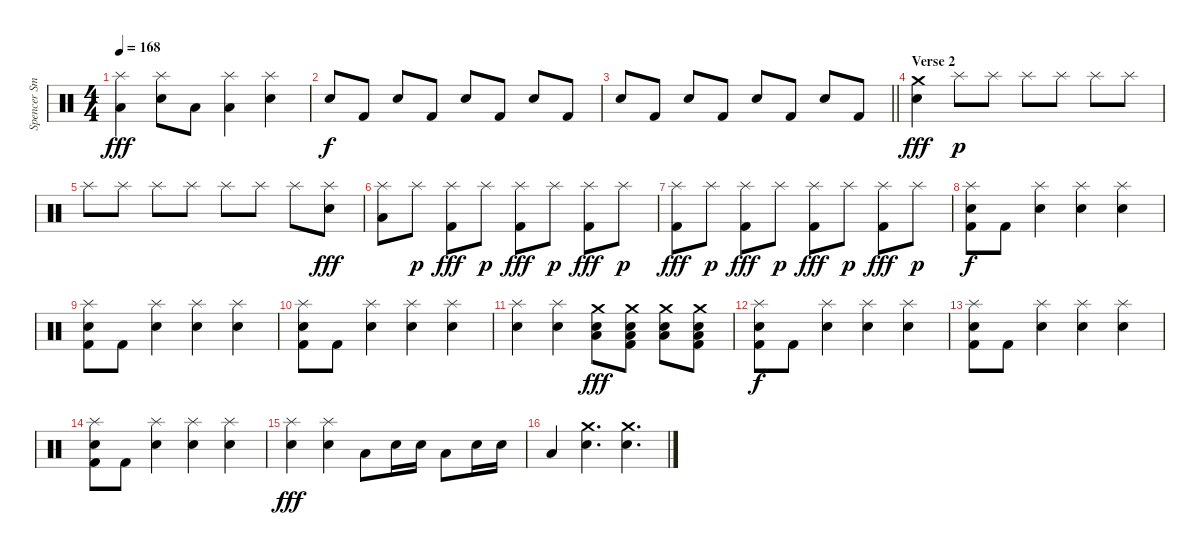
\track ("Spencer Smith" "Spencer Sm") {instrument percussion}
\staff {score}
\articulation defaults
\ts (4 4)
\tempo 168
\clef neutral
\ks c
("Splash (hit)" "Low Floor Tom (hit)").4{dy fff} ("Splash (hit)" "Electric Snare (hit)").8 "Low Floor Tom (hit)".8 ("Splash (hit)" "Low Floor Tom (hit)").4 ("Splash (hit)" "Electric Snare (hit)").4 |
"Snare (hit) 2".8{dy f} "Kick (hit) 2".8 "Snare (hit) 2".8 "Kick (hit) 2".8 "Snare (hit) 2".8 "Kick (hit) 2".8 "Snare (hit) 2".8 "Kick (hit) 2".8 |
\barLineRight lightlight "Snare (hit) 2".8 "Kick (hit) 2".8 "Snare (hit) 2".8 "Kick (hit) 2".8 "Snare (hit) 2".8 "Kick (hit) 2".8 "Snare (hit) 2".8 "Kick (hit) 2".8
|
\section ("" "Verse 2")
("Crash medium (hit)" "Electric Snare (hit)").4{dy fff} "Splash (hit)".8{dy p} "Splash (hit)".8 "Splash (hit)".8 "Splash (hit)".8 "Splash (hit)".8 "Splash (hit)".8 |
"Splash (hit)".8 "Splash (hit)".8 "Splash (hit)".8 "Splash (hit)".8 "Splash (hit)".8 "Splash (hit)".8 "Splash (hit)".8 ("Splash (hit)" "Electric Snare (hit)").8{dy fff} |
("Splash (hit)" "Low Floor Tom (hit)").8 "Splash (hit)".8{dy p} ("Splash (hit)" "Kick (hit) 2").8{dy fff} "Splash (hit)".8{dy p} ("Splash (hit)" "Kick (hit) 2").8{dy fff} "Splash (hit)".8{dy p} ("Splash (hit)" "Kick (hit) 2").8{dy fff} "Splash (hit)".8{dy p} |
("Splash (hit)" "Kick (hit) 2").8{dy fff} "Splash (hit)".8{dy p} ("Splash (hit)" "Kick (hit) 2").8{dy fff} "Splash (hit)".8{dy p} ("Splash (hit)" "Kick (hit) 2").8{dy fff} "Splash (hit)".8{dy p} ("Splash (hit)" "Kick (hit) 2").8{dy fff} "Splash (hit)".8{dy p} |
("Splash (hit)" "Electric Snare (hit)" "Kick (hit) 2").8{dy f} "Kick (hit) 2".8 ("Splash (hit)" "Electric Snare (hit)").4 ("Splash (hit)" "Electric Snare (hit)").4 ("Splash (hit)" "Electric Snare (hit)").4 |
("Splash (hit)" "Electric Snare (hit)" "Kick (hit) 2").8 "Kick (hit) 2".8 ("Splash (hit)" "Electric Snare (hit)").4 ("Splash (hit)" "Electric Snare (hit)").4 ("Splash (hit)" "Electric Snare (hit)").4 |
("Splash (hit)" "Electric Snare (hit)" "Kick (hit) 2").8 "Kick (hit) 2".8 ("Splash (hit)" "Electric Snare (hit)").4 ("Splash (hit)" "Electric Snare (hit)").4 ("Splash (hit)" "Electric Snare (hit)").4 |
("Splash (hit)" "Electric Snare (hit)").4 ("Splash (hit)" "Electric Snare (hit)").4 ("Crash medium (hit)" "Low Floor Tom (hit)" "Electric Snare (hit)").8{dy fff} ("Crash medium (hit)" "Low Floor Tom (hit)" "Snare (hit) 2" "Kick (hit) 2").8 ("Crash medium (hit)" "Low Floor Tom (hit)" "Electric Snare (hit)").8 ("Crash medium (hit)" "Low Floor Tom (hit)" "Snare (hit) 2" "Kick (hit) 2").8 |
("Splash (hit)" "Electric Snare (hit)" "Kick (hit) 2").8{dy f} "Kick (hit) 2".8 ("Splash (hit)" "Electric Snare (hit)").4 ("Splash (hit)" "Electric Snare (hit)").4 ("Splash (hit)" "Electric Snare (hit)").4 |
("Splash (hit)" "Electric Snare (hit)" "Kick (hit) 2").8 "Kick (hit) 2".8 ("Splash (hit)" "Electric Snare (hit)").4 ("Splash (hit)" "Electric Snare (hit)").4 ("Splash (hit)" "Electric Snare (hit)").4 |
("Splash (hit)" "Electric Snare (hit)" "Kick (hit) 2").8 "Kick (hit) 2".8 ("Splash (hit)" "Electric Snare (hit)").4 ("Splash (hit)" "Electric Snare (hit)").4 ("Splash (hit)" "Electric Snare (hit)").4 |
("Splash (hit)" "Electric Snare (hit)").4{dy fff} ("Splash (hit)" "Electric Snare (hit)").4 "Low Floor Tom (hit)".8 "Electric Snare (hit)".16 "Electric Snare (hit)".16 "Low Floor Tom (hit)".8 "Electric Snare (hit)".16 "Electric Snare (hit)".16 |
"Low Floor Tom (hit)".4 ("Crash medium (hit)" "Electric Snare (hit)").4{d} ("Crash medium (hit)" "Electric Snare (hit)").4{d}
